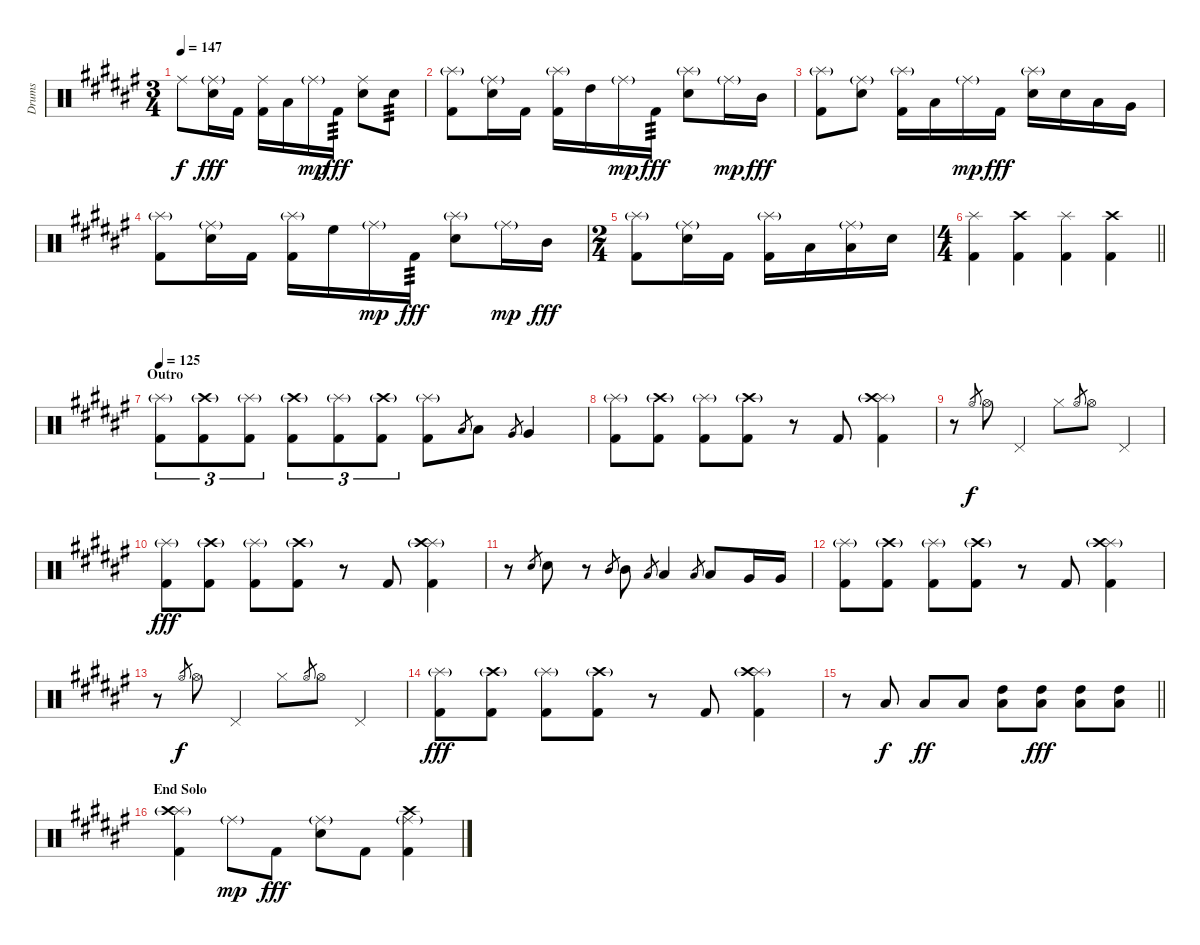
\track ("Drums" "Drums") {instrument percussion}
\staff {score}
\articulation defaults
\ts (3 4)
\tempo 147
\clef neutral
\ks d#minor "Ride (middle)".8{dy f}
("Ride (middle)"{g} "Snare (hit) 2").16{dy fff} "Kick (hit) 2".16 ("Ride (middle)" "Kick (hit) 2").16 "Low Tom (hit)".16 "Ride (middle)"{g}.16{dy mp} "Kick (hit) 2".16{tp 3 dy fff} ("Ride (middle)" "Snare (hit) 2").8 "Snare (hit) 2".8{tp 3} |
("Splash (hit)"{g} "Kick (hit) 2").8 ("Ride (middle)"{g} "Snare (hit) 2").16 "Kick (hit) 2".16 ("Splash (hit)"{g} "Kick (hit) 2").16 "High Tom (hit)".16 "Ride (middle)"{g}.16{dy mp} "Kick (hit) 2".16{tp 3 dy fff} ("Splash (hit)"{g} "Snare (hit) 2").8 "Ride (middle)"{g}.16{dy mp} "Mid Tom (hit)".16{dy fff} |
("Splash (hit)"{g} "Kick (hit) 2").8 ("Ride (middle)"{g} "Snare (hit) 2").8 ("Splash (hit)"{g} "Kick (hit) 2").16 "Low Tom (hit)".16 "Ride (middle)"{g}.16{dy mp} "Kick (hit) 2".16{dy fff} ("Splash (hit)"{g} "Snare (hit) 2").16 "Snare (hit) 2".16 "Low Tom (hit)".16 "Very Low Tom (hit)".16 |
("Splash (hit)"{g} "Kick (hit) 2").8 ("Ride (middle)"{g} "Snare (hit) 2").16 "Kick (hit) 2".16 ("Splash (hit)"{g} "Kick (hit) 2").16 "High Floor Tom (hit)".16 "Ride (middle)"{g}.16{dy mp} "Kick (hit) 2".16{tp 3 dy fff} ("Splash (hit)"{g} "Snare (hit) 2").8 "Ride (middle)"{g}.16{dy mp} "Mid Tom (hit)".16{dy fff} |
\ts (2 4)
("Splash (hit)"{g} "Kick (hit) 2").8 ("Ride (middle)"{g} "Snare (hit) 2").16 "Kick (hit) 2".16 ("Splash (hit)"{g} "Kick (hit) 2").16 "Low Tom (hit)".16 ("Ride (middle)"{g} "Low Tom (hit)").16 "Snare (hit) 2".16 |
\ts (4 4)
\barLineRight lightlight
("Splash (hit)" "Kick (hit) 2").4 ("Crash high (hit)" "Kick (hit) 2").4 ("Splash (hit)" "Kick (hit) 2").4 ("Crash high (hit)" "Kick (hit) 2").4 |
\section ("" "Outro")
\tempo 125
("Splash (hit)"{g} "Kick (hit) 2").8{tu (3 2)} ("Crash high (hit)"{g} "Kick (hit) 2").8{tu (3 2)} ("Splash (hit)"{g} "Kick (hit) 2").8{tu (3 2)} ("Crash high (hit)"{g} "Kick (hit) 2").8{tu (3 2)} ("Splash (hit)"{g} "Kick (hit) 2").8{tu (3 2)} ("Crash high (hit)"{g} "Kick (hit) 2").8{tu (3 2)} ("Splash (hit)"{g} "Kick (hit) 2").8 "Low Tom (hit)".8{gr} "Low Tom (hit)".8 "Very Low Tom (hit)".8{gr} "Very Low Tom (hit)".4 |
("Splash (hit)"{g} "Kick (hit) 2").8 ("Crash high (hit)"{g} "Kick (hit) 2").8 ("Splash (hit)"{g} "Kick (hit) 2").8 ("Crash high (hit)"{g} "Kick (hit) 2").8 r.8 "Kick (hit) 2".8 ("Splash (hit)"{g} "Crash high (hit)"{g} "Kick (hit) 2").4 |
r.8 "Hi-Hat (open)".8{gr dy f} "Hi-Hat (open)".8 "Pedal Hi-Hat (hit)".4 "Hi-Hat (closed)".8 "Hi-Hat (open)".8{gr} "Hi-Hat (open)".8 "Pedal Hi-Hat (hit)".4 |
("Splash (hit)"{g} "Kick (hit) 2").8{dy fff} ("Crash high (hit)"{g} "Kick (hit) 2").8 ("Splash (hit)"{g} "Kick (hit) 2").8 ("Crash high (hit)"{g} "Kick (hit) 2").8 r.8 "Kick (hit) 2".8 ("Splash (hit)"{g} "Crash high (hit)"{g} "Kick (hit) 2").4 |
r.8 "Snare (hit) 2".8{gr} "Snare (hit) 2".8 r.8 "Mid Tom (hit)".8{gr} "Mid Tom (hit)".8 "Low Tom (hit)".8{gr} "Low Tom (hit)".4 "Low Tom (hit)".8{gr} "Low Tom (hit)".8 "Very Low Tom (hit)".16 "Very Low Tom (hit)".16 |
("Splash (hit)"{g} "Kick (hit) 2").8 ("Crash high (hit)"{g} "Kick (hit) 2").8 ("Splash (hit)"{g} "Kick (hit) 2").8 ("Crash high (hit)"{g} "Kick (hit) 2").8 r.8 "Kick (hit) 2".8 ("Splash (hit)"{g} "Crash high (hit)"{g} "Kick (hit) 2").4 |
r.8 "Hi-Hat (open)".8{gr dy f} "Hi-Hat (open)".8 "Pedal Hi-Hat (hit)".4 "Hi-Hat (closed)".8 "Hi-Hat (open)".8{gr} "Hi-Hat (open)".8 "Pedal Hi-Hat (hit)".4 |
("Splash (hit)"{g} "Kick (hit) 2").8{dy fff} ("Crash high (hit)"{g} "Kick (hit) 2").8 ("Splash (hit)"{g} "Kick (hit) 2").8 ("Crash high (hit)"{g} "Kick (hit) 2").8 r.8 "Kick (hit) 2".8 ("Splash (hit)"{g} "Crash high (hit)"{g} "Kick (hit) 2").4 |
\barLineRight lightlight
r.8 "Low Floor Tom (hit)".8{dy f} "Low Floor Tom (hit)".8{dy ff} "Low Floor Tom (hit)".8 ("High Tom (hit)" "Low Floor Tom (hit)").8 ("High Tom (hit)" "Low Floor Tom (hit)").8{dy fff} ("High Tom (hit)" "Low Floor Tom (hit)").8 ("High Tom (hit)" "Low Floor Tom (hit)").8 |
\section ("" "End Solo")
("Splash (hit)"{g} "Crash high (hit)"{g} "Kick (hit) 2").4 "Ride (middle)"{g}.8{dy mp} "Kick (hit) 2".8{dy fff} ("Ride (middle)"{g} "Snare (hit) 2").8 "Kick (hit) 2".8 ("Ride (middle)"{g} "Crash high (hit)" "Kick (hit) 2").4
